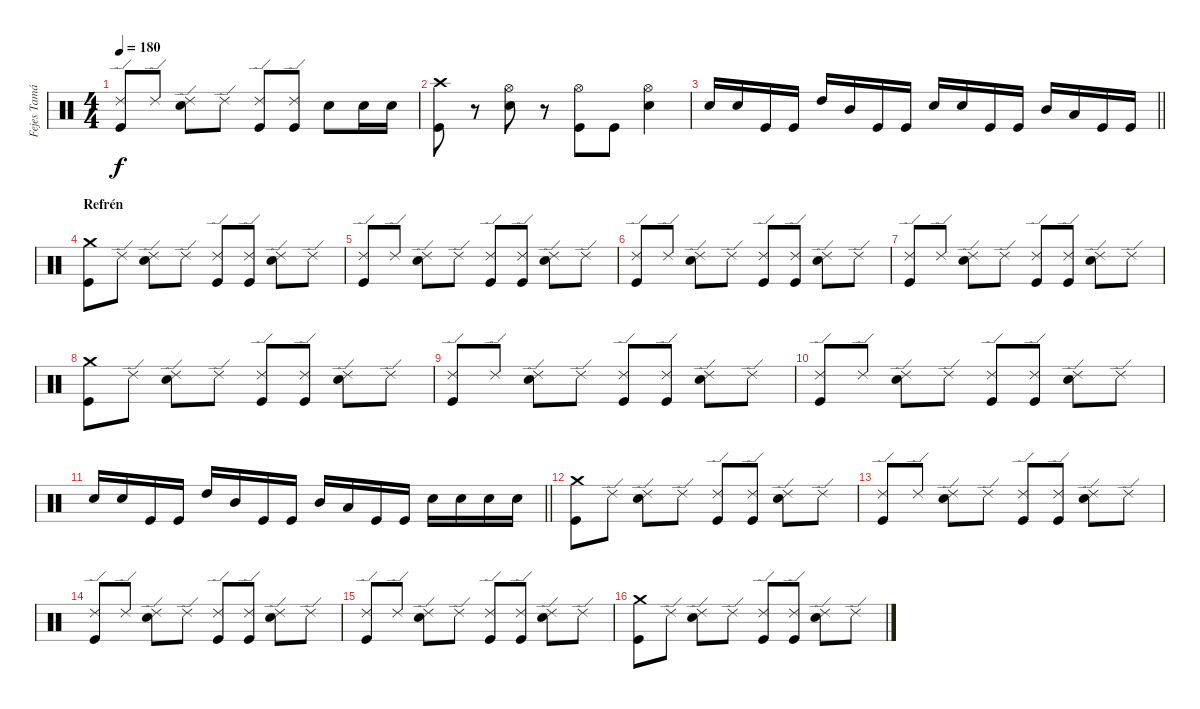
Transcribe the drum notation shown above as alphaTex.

\track ("Fejes Tamás - Dob" "Fejes Tamá") {instrument percussion}
\staff {score}
\articulation defaults
\ts (4 4)
\tempo 180
\clef neutral
\ks c
("Ride (edge) 2" "Kick (hit)").8{dy f} "Ride (edge) 2".8 ("Ride (edge) 2" "Electric Snare (hit)").8 "Ride (edge) 2".8 ("Ride (edge) 2" "Kick (hit)").8 ("Ride (edge) 2" "Kick (hit)").8 "Electric Snare (hit)".8 "Electric Snare (hit)".16 "Electric Snare (hit)".16 |
("Crash high (hit)" "Kick (hit)").8 r.8 ("Hi-Hat (open)" "Electric Snare (hit)").8 r.8 ("Hi-Hat (open)" "Kick (hit)").8 "Kick (hit)".8 ("Hi-Hat (open)" "Electric Snare (hit)").4 |
\barLineRight lightlight "Electric Snare (hit)".16 "Electric Snare (hit)".16 "Kick (hit)".16 "Kick (hit)".16 "High Tom (hit)".16 "Mid Tom (hit)".16 "Kick (hit)".16 "Kick (hit)".16 "Electric Snare (hit)".16 "Electric Snare (hit)".16 "Kick (hit)".16 "Kick (hit)".16 "Mid Tom (hit)".16 "Low Tom (hit)".16 "Kick (hit)".16 "Kick (hit)".16
|
\section ("" "Refrén")
("Crash medium (hit)" "Kick (hit)").8 "Ride (edge) 2".8 ("Ride (edge) 2" "Electric Snare (hit)").8 "Ride (edge) 2".8 ("Ride (edge) 2" "Kick (hit)").8 ("Ride (edge) 2" "Kick (hit)").8 ("Ride (edge) 2" "Electric Snare (hit)").8 "Ride (edge) 2".8 |
("Ride (edge) 2" "Kick (hit)").8 "Ride (edge) 2".8 ("Ride (edge) 2" "Electric Snare (hit)").8 "Ride (edge) 2".8 ("Ride (edge) 2" "Kick (hit)").8 ("Ride (edge) 2" "Kick (hit)").8 ("Ride (edge) 2" "Electric Snare (hit)").8 "Ride (edge) 2".8 |
("Ride (edge) 2" "Kick (hit)").8 "Ride (edge) 2".8 ("Ride (edge) 2" "Electric Snare (hit)").8 "Ride (edge) 2".8 ("Ride (edge) 2" "Kick (hit)").8 ("Ride (edge) 2" "Kick (hit)").8 ("Ride (edge) 2" "Electric Snare (hit)").8 "Ride (edge) 2".8 |
("Ride (edge) 2" "Kick (hit)").8 "Ride (edge) 2".8 ("Ride (edge) 2" "Electric Snare (hit)").8 "Ride (edge) 2".8 ("Ride (edge) 2" "Kick (hit)").8 ("Ride (edge) 2" "Kick (hit)").8 ("Ride (edge) 2" "Electric Snare (hit)").8 "Ride (edge) 2".8 |
("Crash medium (hit)" "Kick (hit)").8 "Ride (edge) 2".8 ("Ride (edge) 2" "Electric Snare (hit)").8 "Ride (edge) 2".8 ("Ride (edge) 2" "Kick (hit)").8 ("Ride (edge) 2" "Kick (hit)").8 ("Ride (edge) 2" "Electric Snare (hit)").8 "Ride (edge) 2".8 |
("Ride (edge) 2" "Kick (hit)").8 "Ride (edge) 2".8 ("Ride (edge) 2" "Electric Snare (hit)").8 "Ride (edge) 2".8 ("Ride (edge) 2" "Kick (hit)").8 ("Ride (edge) 2" "Kick (hit)").8 ("Ride (edge) 2" "Electric Snare (hit)").8 "Ride (edge) 2".8 |
("Ride (edge) 2" "Kick (hit)").8 "Ride (edge) 2".8 ("Ride (edge) 2" "Electric Snare (hit)").8 "Ride (edge) 2".8 ("Ride (edge) 2" "Kick (hit)").8 ("Ride (edge) 2" "Kick (hit)").8 ("Ride (edge) 2" "Electric Snare (hit)").8 "Ride (edge) 2".8 |
\barLineRight lightlight "Electric Snare (hit)".16 "Electric Snare (hit)".16 "Kick (hit)".16 "Kick (hit)".16 "High Tom (hit)".16 "Mid Tom (hit)".16 "Kick (hit)".16 "Kick (hit)".16 "Mid Tom (hit)".16 "Low Tom (hit)".16 "Kick (hit)".16 "Kick (hit)".16 "Electric Snare (hit)".16 "Electric Snare (hit)".16 "Electric Snare (hit)".16 "Electric Snare (hit)".16
|
("Crash medium (hit)" "Kick (hit)").8 "Ride (edge) 2".8 ("Ride (edge) 2" "Electric Snare (hit)").8 "Ride (edge) 2".8 ("Ride (edge) 2" "Kick (hit)").8 ("Ride (edge) 2" "Kick (hit)").8 ("Ride (edge) 2" "Electric Snare (hit)").8 "Ride (edge) 2".8 |
("Ride (edge) 2" "Kick (hit)").8 "Ride (edge) 2".8 ("Ride (edge) 2" "Electric Snare (hit)").8 "Ride (edge) 2".8 ("Ride (edge) 2" "Kick (hit)").8 ("Ride (edge) 2" "Kick (hit)").8 ("Ride (edge) 2" "Electric Snare (hit)").8 "Ride (edge) 2".8 |
("Ride (edge) 2" "Kick (hit)").8 "Ride (edge) 2".8 ("Ride (edge) 2" "Electric Snare (hit)").8 "Ride (edge) 2".8 ("Ride (edge) 2" "Kick (hit)").8 ("Ride (edge) 2" "Kick (hit)").8 ("Ride (edge) 2" "Electric Snare (hit)").8 "Ride (edge) 2".8 |
("Ride (edge) 2" "Kick (hit)").8 "Ride (edge) 2".8 ("Ride (edge) 2" "Electric Snare (hit)").8 "Ride (edge) 2".8 ("Ride (edge) 2" "Kick (hit)").8 ("Ride (edge) 2" "Kick (hit)").8 ("Ride (edge) 2" "Electric Snare (hit)").8 "Ride (edge) 2".8 |
("Crash medium (hit)" "Kick (hit)").8 "Ride (edge) 2".8 ("Ride (edge) 2" "Electric Snare (hit)").8 "Ride (edge) 2".8 ("Ride (edge) 2" "Kick (hit)").8 ("Ride (edge) 2" "Kick (hit)").8 ("Ride (edge) 2" "Electric Snare (hit)").8 "Ride (edge) 2".8
